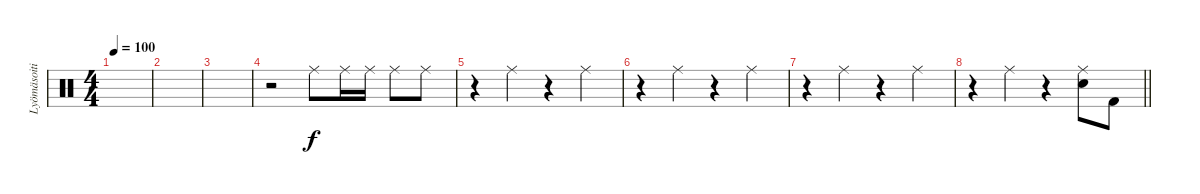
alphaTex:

\track ("Lyömäsoitin" "Lyömäsoiti") {instrument percussion}
\staff {score}
\articulation defaults
\ts (4 4)
\tempo 100
\clef neutral
\ks c
|
|
|
r.2 "Ride (middle)".8 "Ride (middle)".16 "Ride (middle)".16 "Ride (middle)".8 "Ride (middle)".8 |
r.4 "Ride (middle)".4 r.4 "Ride (middle)".4 |
r.4 "Ride (middle)".4 r.4 "Ride (middle)".4 |
r.4 "Ride (middle)".4 r.4 "Ride (middle)".4 |
\barLineRight lightlight
r.4 "Ride (middle)".4 r.4 ("Ride (middle)" "Snare (hit) 2").8 "Kick (hit) 2".8
